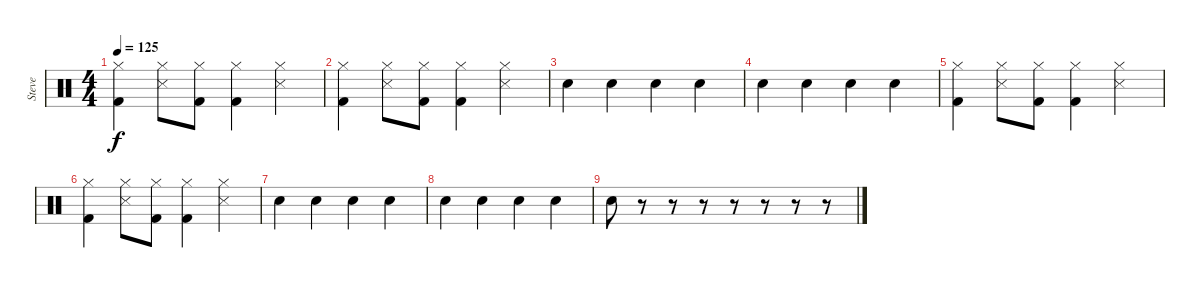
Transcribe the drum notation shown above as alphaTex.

\track ("Steve" "Steve") {instrument percussion}
\staff {score}
\articulation defaults
\ts (4 4)
\tempo 125
\clef neutral
\ks c
("Hi-Hat (closed)" "Kick (hit) 2").4{dy f} ("Hi-Hat (closed)" "Snare (side stick) 3").8 ("Hi-Hat (closed)" "Kick (hit) 2").8 ("Hi-Hat (closed)" "Kick (hit) 2").4 ("Hi-Hat (closed)" "Snare (side stick) 3").4 |
("Hi-Hat (closed)" "Kick (hit) 2").4 ("Hi-Hat (closed)" "Snare (side stick) 3").8 ("Hi-Hat (closed)" "Kick (hit) 2").8 ("Hi-Hat (closed)" "Kick (hit) 2").4 ("Hi-Hat (closed)" "Snare (side stick) 3").4 |
"Snare (hit) 2".4 "Snare (hit) 2".4 "Snare (hit) 2".4 "Snare (hit) 2".4 |
"Snare (hit) 2".4 "Snare (hit) 2".4 "Snare (hit) 2".4 "Snare (hit) 2".4 |
("Hi-Hat (closed)" "Kick (hit) 2").4 ("Hi-Hat (closed)" "Snare (side stick) 3").8 ("Hi-Hat (closed)" "Kick (hit) 2").8 ("Hi-Hat (closed)" "Kick (hit) 2").4 ("Hi-Hat (closed)" "Snare (side stick) 3").4 |
("Hi-Hat (closed)" "Kick (hit) 2").4 ("Hi-Hat (closed)" "Snare (side stick) 3").8 ("Hi-Hat (closed)" "Kick (hit) 2").8 ("Hi-Hat (closed)" "Kick (hit) 2").4 ("Hi-Hat (closed)" "Snare (side stick) 3").4 |
"Snare (hit) 2".4 "Snare (hit) 2".4 "Snare (hit) 2".4 "Snare (hit) 2".4 |
"Snare (hit) 2".4 "Snare (hit) 2".4 "Snare (hit) 2".4 "Snare (hit) 2".4 |
"Snare (hit) 2".8 r.8 r.8 r.8 r.8 r.8 r.8 r.8
